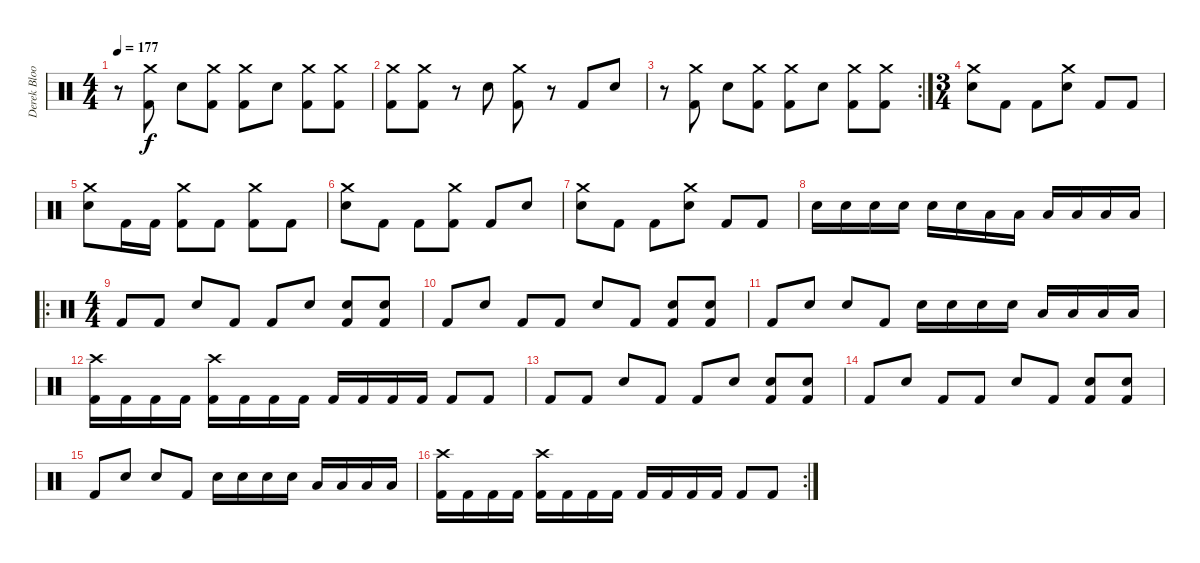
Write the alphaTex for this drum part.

\track ("Derek Bloom" "Derek Bloo") {instrument percussion}
\staff {score}
\articulation defaults
\ts (4 4)
\tempo 177
\clef neutral
\ks c
r.8{dy f} ("Crash medium (hit)" "Kick (hit) 2").8 "Electric Snare (hit)".8 ("Crash medium (hit)" "Kick (hit) 2").8 ("Crash medium (hit)" "Kick (hit) 2").8 "Electric Snare (hit)".8 ("Crash medium (hit)" "Kick (hit) 2").8 ("Crash medium (hit)" "Kick (hit) 2").8 |
("Crash medium (hit)" "Kick (hit) 2").8 ("Crash medium (hit)" "Kick (hit) 2").8 r.8 "Electric Snare (hit)".8 ("Crash medium (hit)" "Kick (hit) 2").8 r.8 "Kick (hit) 2".8 "Electric Snare (hit)".8 |
\rc 2
r.8 ("Crash medium (hit)" "Kick (hit) 2").8 "Electric Snare (hit)".8 ("Crash medium (hit)" "Kick (hit) 2").8 ("Crash medium (hit)" "Kick (hit) 2").8 "Electric Snare (hit)".8 ("Crash medium (hit)" "Kick (hit) 2").8 ("Crash medium (hit)" "Kick (hit) 2").8 |
\ts (3 4)
("Crash medium (hit)" "Electric Snare (hit)").8 "Kick (hit) 2".8 "Kick (hit) 2".8 ("Crash medium (hit)" "Electric Snare (hit)").8 "Kick (hit) 2".8 "Kick (hit) 2".8 |
("Crash medium (hit)" "Electric Snare (hit)").8 "Kick (hit) 2".16 "Kick (hit) 2".16 ("Crash medium (hit)" "Kick (hit) 2").8 "Kick (hit) 2".8 ("Crash medium (hit)" "Kick (hit) 2").8 "Kick (hit) 2".8 |
("Crash medium (hit)" "Electric Snare (hit)").8 "Kick (hit) 2".8 "Kick (hit) 2".8 ("Crash medium (hit)" "Kick (hit) 2").8 "Kick (hit) 2".8 "Electric Snare (hit)".8 |
("Crash medium (hit)" "Electric Snare (hit)").8 "Kick (hit) 2".8 "Kick (hit) 2".8 ("Crash medium (hit)" "Electric Snare (hit)").8 "Kick (hit) 2".8 "Kick (hit) 2".8 |
"Electric Snare (hit)".16 "Electric Snare (hit)".16 "Electric Snare (hit)".16 "Electric Snare (hit)".16 "Electric Snare (hit)".16 "Electric Snare (hit)".16 "Low Tom (hit)".16 "Low Tom (hit)".16 "Low Tom (hit)".16 "Low Tom (hit)".16 "Low Tom (hit)".16 "Low Tom (hit)".16 |
\ro
\ts (4 4)
"Kick (hit) 2".8 "Kick (hit) 2".8 "Electric Snare (hit)".8 "Kick (hit) 2".8 "Kick (hit) 2".8 "Electric Snare (hit)".8 ("Electric Snare (hit)" "Kick (hit) 2").8 ("Electric Snare (hit)" "Kick (hit) 2").8 |
"Kick (hit) 2".8 "Electric Snare (hit)".8 "Kick (hit) 2".8 "Kick (hit) 2".8 "Electric Snare (hit)".8 "Kick (hit) 2".8 ("Electric Snare (hit)" "Kick (hit) 2").8 ("Electric Snare (hit)" "Kick (hit) 2").8 |
"Kick (hit) 2".8 "Electric Snare (hit)".8 "Electric Snare (hit)".8 "Kick (hit) 2".8 "Electric Snare (hit)".16 "Electric Snare (hit)".16 "Electric Snare (hit)".16 "Electric Snare (hit)".16 "Low Tom (hit)".16 "Low Tom (hit)".16 "Low Tom (hit)".16 "Low Tom (hit)".16 |
("Crash high (hit)" "Kick (hit) 2").16 "Kick (hit) 2".16 "Kick (hit) 2".16 "Kick (hit) 2".16 ("Crash high (hit)" "Kick (hit) 2").16 "Kick (hit) 2".16 "Kick (hit) 2".16 "Kick (hit) 2".16 "Kick (hit) 2".16 "Kick (hit) 2".16 "Kick (hit) 2".16 "Kick (hit) 2".16 "Kick (hit) 2".8 "Kick (hit) 2".8 |
"Kick (hit) 2".8 "Kick (hit) 2".8 "Electric Snare (hit)".8 "Kick (hit) 2".8 "Kick (hit) 2".8 "Electric Snare (hit)".8 ("Electric Snare (hit)" "Kick (hit) 2").8 ("Electric Snare (hit)" "Kick (hit) 2").8 |
"Kick (hit) 2".8 "Electric Snare (hit)".8 "Kick (hit) 2".8 "Kick (hit) 2".8 "Electric Snare (hit)".8 "Kick (hit) 2".8 ("Electric Snare (hit)" "Kick (hit) 2").8 ("Electric Snare (hit)" "Kick (hit) 2").8 |
"Kick (hit) 2".8 "Electric Snare (hit)".8 "Electric Snare (hit)".8 "Kick (hit) 2".8 "Electric Snare (hit)".16 "Electric Snare (hit)".16 "Electric Snare (hit)".16 "Electric Snare (hit)".16 "Low Tom (hit)".16 "Low Tom (hit)".16 "Low Tom (hit)".16 "Low Tom (hit)".16 |
\rc 2
("Crash high (hit)" "Kick (hit) 2").16 "Kick (hit) 2".16 "Kick (hit) 2".16 "Kick (hit) 2".16 ("Crash high (hit)" "Kick (hit) 2").16 "Kick (hit) 2".16 "Kick (hit) 2".16 "Kick (hit) 2".16 "Kick (hit) 2".16 "Kick (hit) 2".16 "Kick (hit) 2".16 "Kick (hit) 2".16 "Kick (hit) 2".8 "Kick (hit) 2".8
